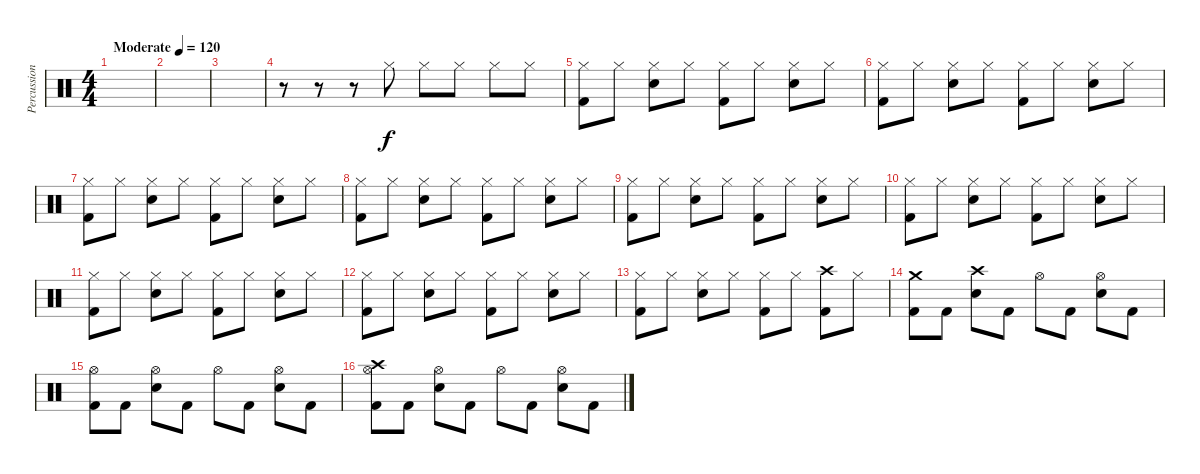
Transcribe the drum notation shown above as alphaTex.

\track ("Percussion" "Percussion") {instrument percussion}
\staff {score}
\articulation defaults
\ts (4 4)
\tempo (120 "Moderate")
\clef neutral
\ks c
|
|
|
r.8 r.8 r.8 "Hi-Hat (closed)".8 "Hi-Hat (closed)".8 "Hi-Hat (closed)".8 "Hi-Hat (closed)".8 "Hi-Hat (closed)".8 |
("Hi-Hat (closed)" "Kick (hit) 2").8 "Hi-Hat (closed)".8 ("Hi-Hat (closed)" "Electric Snare (hit)").8 "Hi-Hat (closed)".8 ("Hi-Hat (closed)" "Kick (hit) 2").8 "Hi-Hat (closed)".8 ("Hi-Hat (closed)" "Snare (hit) 2").8 "Hi-Hat (closed)".8 |
("Hi-Hat (closed)" "Kick (hit) 2").8 "Hi-Hat (closed)".8 ("Hi-Hat (closed)" "Electric Snare (hit)").8 "Hi-Hat (closed)".8 ("Hi-Hat (closed)" "Kick (hit) 2").8 "Hi-Hat (closed)".8 ("Hi-Hat (closed)" "Snare (hit) 2").8 "Hi-Hat (closed)".8 |
("Hi-Hat (closed)" "Kick (hit) 2").8 "Hi-Hat (closed)".8 ("Hi-Hat (closed)" "Electric Snare (hit)").8 "Hi-Hat (closed)".8 ("Hi-Hat (closed)" "Kick (hit) 2").8 "Hi-Hat (closed)".8 ("Hi-Hat (closed)" "Snare (hit) 2").8 "Hi-Hat (closed)".8 |
("Hi-Hat (closed)" "Kick (hit) 2").8 "Hi-Hat (closed)".8 ("Hi-Hat (closed)" "Electric Snare (hit)").8 "Hi-Hat (closed)".8 ("Hi-Hat (closed)" "Kick (hit) 2").8 "Hi-Hat (closed)".8 ("Hi-Hat (closed)" "Snare (hit) 2").8 "Hi-Hat (closed)".8 |
("Hi-Hat (closed)" "Kick (hit) 2").8 "Hi-Hat (closed)".8 ("Hi-Hat (closed)" "Electric Snare (hit)").8 "Hi-Hat (closed)".8 ("Hi-Hat (closed)" "Kick (hit) 2").8 "Hi-Hat (closed)".8 ("Hi-Hat (closed)" "Snare (hit) 2").8 "Hi-Hat (closed)".8 |
("Hi-Hat (closed)" "Kick (hit) 2").8 "Hi-Hat (closed)".8 ("Hi-Hat (closed)" "Electric Snare (hit)").8 "Hi-Hat (closed)".8 ("Hi-Hat (closed)" "Kick (hit) 2").8 "Hi-Hat (closed)".8 ("Hi-Hat (closed)" "Snare (hit) 2").8 "Hi-Hat (closed)".8 |
("Hi-Hat (closed)" "Kick (hit) 2").8 "Hi-Hat (closed)".8 ("Hi-Hat (closed)" "Electric Snare (hit)").8 "Hi-Hat (closed)".8 ("Hi-Hat (closed)" "Kick (hit) 2").8 "Hi-Hat (closed)".8 ("Hi-Hat (closed)" "Snare (hit) 2").8 "Hi-Hat (closed)".8 |
("Hi-Hat (closed)" "Kick (hit) 2").8 "Hi-Hat (closed)".8 ("Hi-Hat (closed)" "Electric Snare (hit)").8 "Hi-Hat (closed)".8 ("Hi-Hat (closed)" "Kick (hit) 2").8 "Hi-Hat (closed)".8 ("Hi-Hat (closed)" "Snare (hit) 2").8 "Hi-Hat (closed)".8 |
("Hi-Hat (closed)" "Kick (hit) 2").8 "Hi-Hat (closed)".8 ("Hi-Hat (closed)" "Electric Snare (hit)").8 "Hi-Hat (closed)".8 ("Hi-Hat (closed)" "Kick (hit) 2").8 "Hi-Hat (closed)".8 ("Crash high (hit)" "Kick (hit) 2").8 "Hi-Hat (closed)".8 |
("Crash medium (hit)" "Kick (hit) 2").8 "Kick (hit) 2".8 ("Crash high (hit)" "Snare (hit) 2").8 "Kick (hit) 2".8 "Hi-Hat (open)".8 "Kick (hit) 2".8 ("Hi-Hat (open)" "Snare (hit) 2").8 "Kick (hit) 2".8 |
("Hi-Hat (open)" "Kick (hit) 2").8 "Kick (hit) 2".8 ("Hi-Hat (open)" "Snare (hit) 2").8 "Kick (hit) 2".8 "Hi-Hat (open)".8 "Kick (hit) 2".8 ("Hi-Hat (open)" "Snare (hit) 2").8 "Kick (hit) 2".8 |
("Hi-Hat (open)" "Crash high (hit)" "Kick (hit) 2").8 "Kick (hit) 2".8 ("Hi-Hat (open)" "Snare (hit) 2").8 "Kick (hit) 2".8 "Hi-Hat (open)".8 "Kick (hit) 2".8 ("Hi-Hat (open)" "Snare (hit) 2").8 "Kick (hit) 2".8
